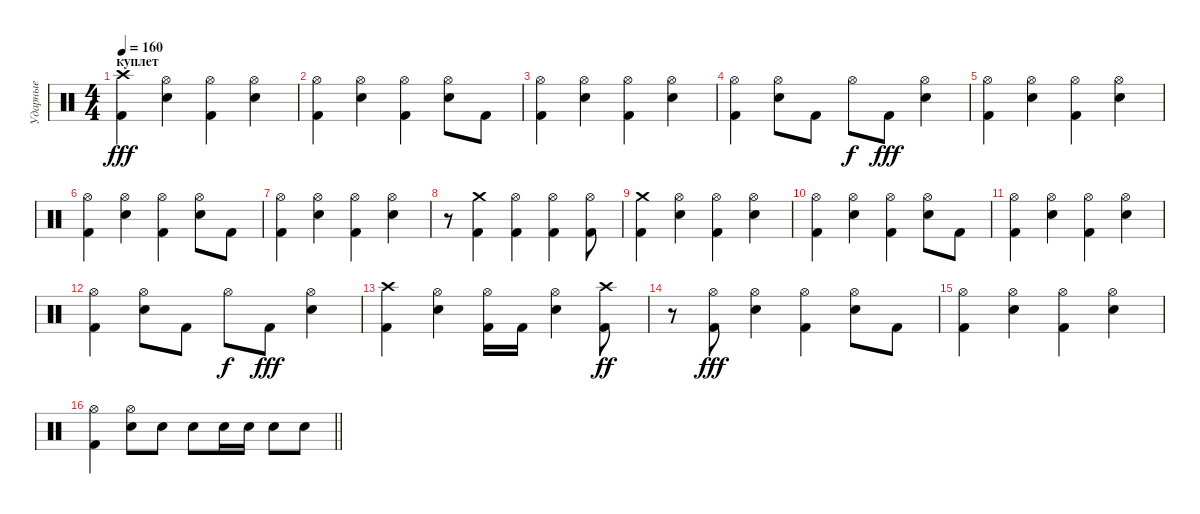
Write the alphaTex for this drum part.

\track ("Ударные" "Ударные") {instrument percussion}
\staff {score}
\articulation defaults
\ts (4 4)
\section ("" "куплет")
\tempo 160
\clef neutral
\ks c
("Kick (hit) 2" "Crash high (hit)").4{dy fff} ("Electric Snare (hit)" "Hi-Hat (open)").4 ("Kick (hit) 2" "Hi-Hat (open)").4 ("Electric Snare (hit)" "Hi-Hat (open)").4 |
("Kick (hit) 2" "Hi-Hat (open)").4 ("Electric Snare (hit)" "Hi-Hat (open)").4 ("Kick (hit) 2" "Hi-Hat (open)").4 ("Electric Snare (hit)" "Hi-Hat (open)").8 "Kick (hit) 2".8 |
("Kick (hit) 2" "Hi-Hat (open)").4 ("Electric Snare (hit)" "Hi-Hat (open)").4 ("Kick (hit) 2" "Hi-Hat (open)").4 ("Electric Snare (hit)" "Hi-Hat (open)").4 |
("Kick (hit) 2" "Hi-Hat (open)").4 ("Electric Snare (hit)" "Hi-Hat (open)").8 "Kick (hit) 2".8 "Hi-Hat (open)".8{dy f} "Kick (hit) 2".8{dy fff} ("Electric Snare (hit)" "Hi-Hat (open)").4 |
("Kick (hit) 2" "Hi-Hat (open)").4 ("Electric Snare (hit)" "Hi-Hat (open)").4 ("Kick (hit) 2" "Hi-Hat (open)").4 ("Electric Snare (hit)" "Hi-Hat (open)").4 |
("Kick (hit) 2" "Hi-Hat (open)").4 ("Electric Snare (hit)" "Hi-Hat (open)").4 ("Kick (hit) 2" "Hi-Hat (open)").4 ("Electric Snare (hit)" "Hi-Hat (open)").8 "Kick (hit) 2".8 |
("Kick (hit) 2" "Hi-Hat (open)").4 ("Electric Snare (hit)" "Hi-Hat (open)").4 ("Kick (hit) 2" "Hi-Hat (open)").4 ("Electric Snare (hit)" "Hi-Hat (open)").4 |
r.8 ("Kick (hit) 2" "Crash medium (hit)").4 ("Kick (hit) 2" "Hi-Hat (open)").4 ("Kick (hit) 2" "Hi-Hat (open)").4 ("Kick (hit) 2" "Hi-Hat (open)").8 |
("Kick (hit) 2" "Crash medium (hit)").4 ("Electric Snare (hit)" "Hi-Hat (open)").4 ("Kick (hit) 2" "Hi-Hat (open)").4 ("Electric Snare (hit)" "Hi-Hat (open)").4 |
("Kick (hit) 2" "Hi-Hat (open)").4 ("Electric Snare (hit)" "Hi-Hat (open)").4 ("Kick (hit) 2" "Hi-Hat (open)").4 ("Electric Snare (hit)" "Hi-Hat (open)").8 "Kick (hit) 2".8 |
("Kick (hit) 2" "Hi-Hat (open)").4 ("Electric Snare (hit)" "Hi-Hat (open)").4 ("Kick (hit) 2" "Hi-Hat (open)").4 ("Electric Snare (hit)" "Hi-Hat (open)").4 |
("Kick (hit) 2" "Hi-Hat (open)").4 ("Electric Snare (hit)" "Hi-Hat (open)").8 "Kick (hit) 2".8 "Hi-Hat (open)".8{dy f} "Kick (hit) 2".8{dy fff} ("Electric Snare (hit)" "Hi-Hat (open)").4 |
("Kick (hit) 2" "Crash high (hit)").4 ("Electric Snare (hit)" "Hi-Hat (open)").4 ("Kick (hit) 2" "Hi-Hat (open)").16 "Kick (hit) 2".16 ("Electric Snare (hit)" "Hi-Hat (open)").4 ("Kick (hit) 2" "Crash high (hit)").8{dy ff} |
r.8 ("Kick (hit) 2" "Hi-Hat (open)").8{dy fff} ("Electric Snare (hit)" "Hi-Hat (open)").4 ("Kick (hit) 2" "Hi-Hat (open)").4 ("Electric Snare (hit)" "Hi-Hat (open)").8 "Kick (hit) 2".8 |
("Kick (hit) 2" "Hi-Hat (open)").4 ("Electric Snare (hit)" "Hi-Hat (open)").4 ("Kick (hit) 2" "Hi-Hat (open)").4 ("Electric Snare (hit)" "Hi-Hat (open)").4 |
\barLineRight lightlight
("Kick (hit) 2" "Hi-Hat (open)").4 ("Electric Snare (hit)" "Hi-Hat (open)").8 "Electric Snare (hit)".8 "Electric Snare (hit)".8 "Electric Snare (hit)".16 "Electric Snare (hit)".16 "Electric Snare (hit)".8 "Electric Snare (hit)".8
